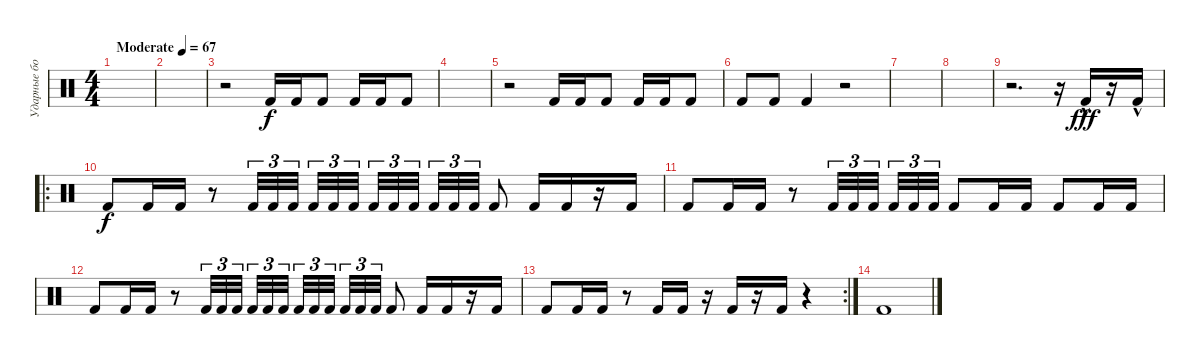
\track ("Ударные бочка" "Ударные бо") {instrument percussion}
\staff {score}
\articulation defaults
\ts (4 4)
\tempo (67 "Moderate")
\clef neutral
\ks c
|
|
r.2 "Kick (hit) 2".16 "Kick (hit) 2".16 "Kick (hit) 2".8 "Kick (hit) 2".16 "Kick (hit) 2".16 "Kick (hit) 2".8 |
|
r.2 "Kick (hit) 2".16 "Kick (hit) 2".16 "Kick (hit) 2".8 "Kick (hit) 2".16 "Kick (hit) 2".16 "Kick (hit) 2".8 |
"Kick (hit) 2".8 "Kick (hit) 2".8 "Kick (hit) 2".4 r.2 |
|
|
r.2{d} r.16 "Kick (hit) 2"{hac}.16{dy fff} r.16 "Kick (hit) 2"{hac}.16 |
\ro "Kick (hit) 2".8{dy f} "Kick (hit) 2".16 "Kick (hit) 2".16
r.8 "Kick (hit) 2".32{tu (3 2)} "Kick (hit) 2".32{tu (3 2)} "Kick (hit) 2".32{tu (3 2) beam splitsecondary} "Kick (hit) 2".32{tu (3 2)} "Kick (hit) 2".32{tu (3 2)} "Kick (hit) 2".32{tu (3 2)} "Kick (hit) 2".32{tu (3 2)} "Kick (hit) 2".32{tu (3 2)} "Kick (hit) 2".32{tu (3 2) beam splitsecondary} "Kick (hit) 2".32{tu (3 2)} "Kick (hit) 2".32{tu (3 2)} "Kick (hit) 2".32{tu (3 2)} "Kick (hit) 2".8 "Kick (hit) 2".16 "Kick (hit) 2".16 r.16 "Kick (hit) 2".16 |
"Kick (hit) 2".8 "Kick (hit) 2".16 "Kick (hit) 2".16 r.8 "Kick (hit) 2".32{tu (3 2)} "Kick (hit) 2".32{tu (3 2)} "Kick (hit) 2".32{tu (3 2) beam splitsecondary} "Kick (hit) 2".32{tu (3 2)} "Kick (hit) 2".32{tu (3 2)} "Kick (hit) 2".32{tu (3 2)} "Kick (hit) 2".8 "Kick (hit) 2".16 "Kick (hit) 2".16 "Kick (hit) 2".8 "Kick (hit) 2".16 "Kick (hit) 2".16 |
"Kick (hit) 2".8 "Kick (hit) 2".16 "Kick (hit) 2".16 r.8 "Kick (hit) 2".32{tu (3 2)} "Kick (hit) 2".32{tu (3 2)} "Kick (hit) 2".32{tu (3 2) beam splitsecondary} "Kick (hit) 2".32{tu (3 2)} "Kick (hit) 2".32{tu (3 2)} "Kick (hit) 2".32{tu (3 2)} "Kick (hit) 2".32{tu (3 2)} "Kick (hit) 2".32{tu (3 2)} "Kick (hit) 2".32{tu (3 2) beam splitsecondary} "Kick (hit) 2".32{tu (3 2)} "Kick (hit) 2".32{tu (3 2)} "Kick (hit) 2".32{tu (3 2)} "Kick (hit) 2".8 "Kick (hit) 2".16 "Kick (hit) 2".16 r.16 "Kick (hit) 2".16 |
\rc 2 "Kick (hit) 2".8 "Kick (hit) 2".16 "Kick (hit) 2".16
r.8 "Kick (hit) 2".16 "Kick (hit) 2".16 r.16 "Kick (hit) 2".16 r.16 "Kick (hit) 2".16 r.4 |
"Kick (hit) 2".1
